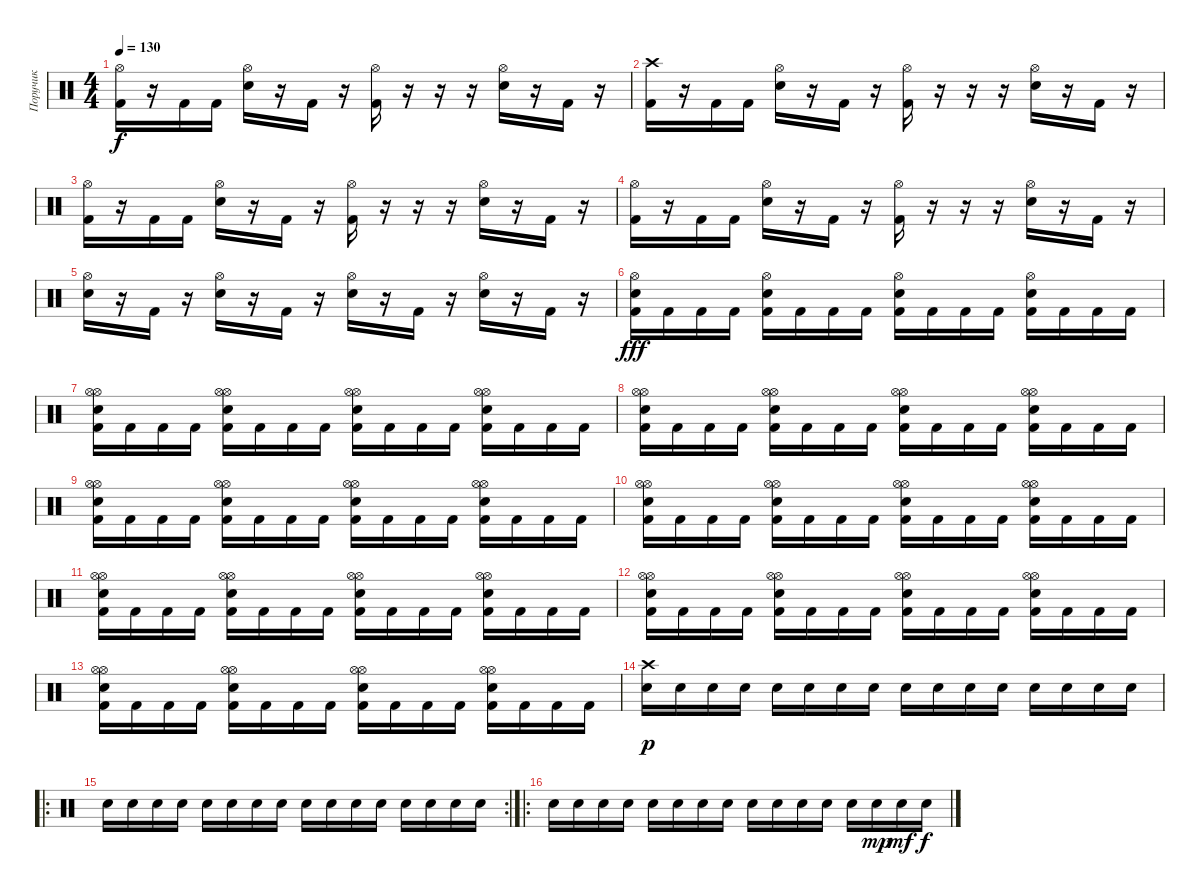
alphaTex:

\track ("Поручик" "Поручик") {instrument percussion}
\staff {score}
\articulation defaults
\ts (4 4)
\tempo 130
\clef neutral
\ks c
("Hi-Hat (open)" "Kick (hit) 2").16{dy f} r.16 "Kick (hit) 2".16 "Kick (hit) 2".16 ("Hi-Hat (open)" "Snare (hit) 2").16 r.16 "Kick (hit) 2".16 r.16 ("Hi-Hat (open)" "Kick (hit) 2").16 r.16 r.16 r.16 ("Hi-Hat (open)" "Snare (hit) 2").16 r.16 "Kick (hit) 2".16 r.16 |
("Crash high (hit)" "Kick (hit) 2").16 r.16 "Kick (hit) 2".16 "Kick (hit) 2".16 ("Hi-Hat (open)" "Snare (hit) 2").16 r.16 "Kick (hit) 2".16 r.16 ("Hi-Hat (open)" "Kick (hit) 2").16 r.16 r.16 r.16 ("Hi-Hat (open)" "Snare (hit) 2").16 r.16 "Kick (hit) 2".16 r.16 |
("Hi-Hat (open)" "Kick (hit) 2").16 r.16 "Kick (hit) 2".16 "Kick (hit) 2".16 ("Hi-Hat (open)" "Snare (hit) 2").16 r.16 "Kick (hit) 2".16 r.16 ("Hi-Hat (open)" "Kick (hit) 2").16 r.16 r.16 r.16 ("Hi-Hat (open)" "Snare (hit) 2").16 r.16 "Kick (hit) 2".16 r.16 |
("Hi-Hat (open)" "Kick (hit) 2").16 r.16 "Kick (hit) 2".16 "Kick (hit) 2".16 ("Hi-Hat (open)" "Snare (hit) 2").16 r.16 "Kick (hit) 2".16 r.16 ("Hi-Hat (open)" "Kick (hit) 2").16 r.16 r.16 r.16 ("Hi-Hat (open)" "Snare (hit) 2").16 r.16 "Kick (hit) 2".16 r.16 |
("Hi-Hat (open)" "Snare (hit) 2").16 r.16 "Kick (hit) 2".16 r.16 ("Hi-Hat (open)" "Snare (hit) 2").16 r.16 "Kick (hit) 2".16 r.16 ("Hi-Hat (open)" "Snare (hit) 2").16 r.16 "Kick (hit) 2".16 r.16 ("Hi-Hat (open)" "Snare (hit) 2").16 r.16 "Kick (hit) 2".16 r.16 |
("Hi-Hat (open)" "Snare (hit) 2" "Kick (hit) 2").16{dy fff} "Kick (hit) 2".16 "Kick (hit) 2".16 "Kick (hit) 2".16 ("Hi-Hat (open)" "Snare (hit) 2" "Kick (hit) 2").16 "Kick (hit) 2".16 "Kick (hit) 2".16 "Kick (hit) 2".16 ("Hi-Hat (open)" "Snare (hit) 2" "Kick (hit) 2").16 "Kick (hit) 2".16 "Kick (hit) 2".16 "Kick (hit) 2".16 ("Hi-Hat (open)" "Snare (hit) 2" "Kick (hit) 2").16 "Kick (hit) 2".16 "Kick (hit) 2".16 "Kick (hit) 2".16 |
("Hi-Hat (open)" "Hi-Hat (open)" "Electric Snare (hit)" "Kick (hit) 2").16 "Kick (hit) 2".16 "Kick (hit) 2".16 "Kick (hit) 2".16 ("Hi-Hat (open)" "Hi-Hat (open)" "Electric Snare (hit)" "Kick (hit) 2").16 "Kick (hit) 2".16 "Kick (hit) 2".16 "Kick (hit) 2".16 ("Hi-Hat (open)" "Hi-Hat (open)" "Electric Snare (hit)" "Kick (hit) 2").16 "Kick (hit) 2".16 "Kick (hit) 2".16 "Kick (hit) 2".16 ("Hi-Hat (open)" "Hi-Hat (open)" "Electric Snare (hit)" "Kick (hit) 2").16 "Kick (hit) 2".16 "Kick (hit) 2".16 "Kick (hit) 2".16 |
("Hi-Hat (open)" "Hi-Hat (open)" "Electric Snare (hit)" "Kick (hit) 2").16 "Kick (hit) 2".16 "Kick (hit) 2".16 "Kick (hit) 2".16 ("Hi-Hat (open)" "Hi-Hat (open)" "Electric Snare (hit)" "Kick (hit) 2").16 "Kick (hit) 2".16 "Kick (hit) 2".16 "Kick (hit) 2".16 ("Hi-Hat (open)" "Hi-Hat (open)" "Electric Snare (hit)" "Kick (hit) 2").16 "Kick (hit) 2".16 "Kick (hit) 2".16 "Kick (hit) 2".16 ("Hi-Hat (open)" "Hi-Hat (open)" "Electric Snare (hit)" "Kick (hit) 2").16 "Kick (hit) 2".16 "Kick (hit) 2".16 "Kick (hit) 2".16 |
("Hi-Hat (open)" "Hi-Hat (open)" "Electric Snare (hit)" "Kick (hit) 2").16 "Kick (hit) 2".16 "Kick (hit) 2".16 "Kick (hit) 2".16 ("Hi-Hat (open)" "Hi-Hat (open)" "Electric Snare (hit)" "Kick (hit) 2").16 "Kick (hit) 2".16 "Kick (hit) 2".16 "Kick (hit) 2".16 ("Hi-Hat (open)" "Hi-Hat (open)" "Electric Snare (hit)" "Kick (hit) 2").16 "Kick (hit) 2".16 "Kick (hit) 2".16 "Kick (hit) 2".16 ("Hi-Hat (open)" "Hi-Hat (open)" "Electric Snare (hit)" "Kick (hit) 2").16 "Kick (hit) 2".16 "Kick (hit) 2".16 "Kick (hit) 2".16 |
("Hi-Hat (open)" "Hi-Hat (open)" "Electric Snare (hit)" "Kick (hit) 2").16 "Kick (hit) 2".16 "Kick (hit) 2".16 "Kick (hit) 2".16 ("Hi-Hat (open)" "Hi-Hat (open)" "Electric Snare (hit)" "Kick (hit) 2").16 "Kick (hit) 2".16 "Kick (hit) 2".16 "Kick (hit) 2".16 ("Hi-Hat (open)" "Hi-Hat (open)" "Electric Snare (hit)" "Kick (hit) 2").16 "Kick (hit) 2".16 "Kick (hit) 2".16 "Kick (hit) 2".16 ("Hi-Hat (open)" "Hi-Hat (open)" "Electric Snare (hit)" "Kick (hit) 2").16 "Kick (hit) 2".16 "Kick (hit) 2".16 "Kick (hit) 2".16 |
("Hi-Hat (open)" "Hi-Hat (open)" "Electric Snare (hit)" "Kick (hit) 2").16 "Kick (hit) 2".16 "Kick (hit) 2".16 "Kick (hit) 2".16 ("Hi-Hat (open)" "Hi-Hat (open)" "Electric Snare (hit)" "Kick (hit) 2").16 "Kick (hit) 2".16 "Kick (hit) 2".16 "Kick (hit) 2".16 ("Hi-Hat (open)" "Hi-Hat (open)" "Electric Snare (hit)" "Kick (hit) 2").16 "Kick (hit) 2".16 "Kick (hit) 2".16 "Kick (hit) 2".16 ("Hi-Hat (open)" "Hi-Hat (open)" "Electric Snare (hit)" "Kick (hit) 2").16 "Kick (hit) 2".16 "Kick (hit) 2".16 "Kick (hit) 2".16 |
("Hi-Hat (open)" "Hi-Hat (open)" "Electric Snare (hit)" "Kick (hit) 2").16 "Kick (hit) 2".16 "Kick (hit) 2".16 "Kick (hit) 2".16 ("Hi-Hat (open)" "Hi-Hat (open)" "Electric Snare (hit)" "Kick (hit) 2").16 "Kick (hit) 2".16 "Kick (hit) 2".16 "Kick (hit) 2".16 ("Hi-Hat (open)" "Hi-Hat (open)" "Electric Snare (hit)" "Kick (hit) 2").16 "Kick (hit) 2".16 "Kick (hit) 2".16 "Kick (hit) 2".16 ("Hi-Hat (open)" "Hi-Hat (open)" "Electric Snare (hit)" "Kick (hit) 2").16 "Kick (hit) 2".16 "Kick (hit) 2".16 "Kick (hit) 2".16 |
("Hi-Hat (open)" "Hi-Hat (open)" "Electric Snare (hit)" "Kick (hit) 2").16 "Kick (hit) 2".16 "Kick (hit) 2".16 "Kick (hit) 2".16 ("Hi-Hat (open)" "Hi-Hat (open)" "Electric Snare (hit)" "Kick (hit) 2").16 "Kick (hit) 2".16 "Kick (hit) 2".16 "Kick (hit) 2".16 ("Hi-Hat (open)" "Hi-Hat (open)" "Electric Snare (hit)" "Kick (hit) 2").16 "Kick (hit) 2".16 "Kick (hit) 2".16 "Kick (hit) 2".16 ("Hi-Hat (open)" "Hi-Hat (open)" "Electric Snare (hit)" "Kick (hit) 2").16 "Kick (hit) 2".16 "Kick (hit) 2".16 "Kick (hit) 2".16 |
("Crash high (hit)" "Electric Snare (hit)").16{dy p} "Electric Snare (hit)".16 "Electric Snare (hit)".16 "Electric Snare (hit)".16 "Electric Snare (hit)".16 "Electric Snare (hit)".16 "Electric Snare (hit)".16 "Electric Snare (hit)".16 "Electric Snare (hit)".16 "Electric Snare (hit)".16 "Electric Snare (hit)".16 "Electric Snare (hit)".16 "Electric Snare (hit)".16 "Electric Snare (hit)".16 "Electric Snare (hit)".16 "Electric Snare (hit)".16 |
\ro
\rc 2 "Electric Snare (hit)".16 "Electric Snare (hit)".16 "Electric Snare (hit)".16 "Electric Snare (hit)".16 "Electric Snare (hit)".16 "Electric Snare (hit)".16 "Electric Snare (hit)".16 "Electric Snare (hit)".16 "Electric Snare (hit)".16 "Electric Snare (hit)".16 "Electric Snare (hit)".16 "Electric Snare (hit)".16 "Electric Snare (hit)".16 "Electric Snare (hit)".16 "Electric Snare (hit)".16 "Electric Snare (hit)".16
|
\ro "Electric Snare (hit)".16 "Electric Snare (hit)".16 "Electric Snare (hit)".16 "Electric Snare (hit)".16 "Electric Snare (hit)".16 "Electric Snare (hit)".16 "Electric Snare (hit)".16 "Electric Snare (hit)".16 "Electric Snare (hit)".16 "Electric Snare (hit)".16 "Electric Snare (hit)".16 "Electric Snare (hit)".16 "Electric Snare (hit)".16 "Electric Snare (hit)".16{dy mp} "Electric Snare (hit)".16{dy mf} "Electric Snare (hit)".16{dy f}
